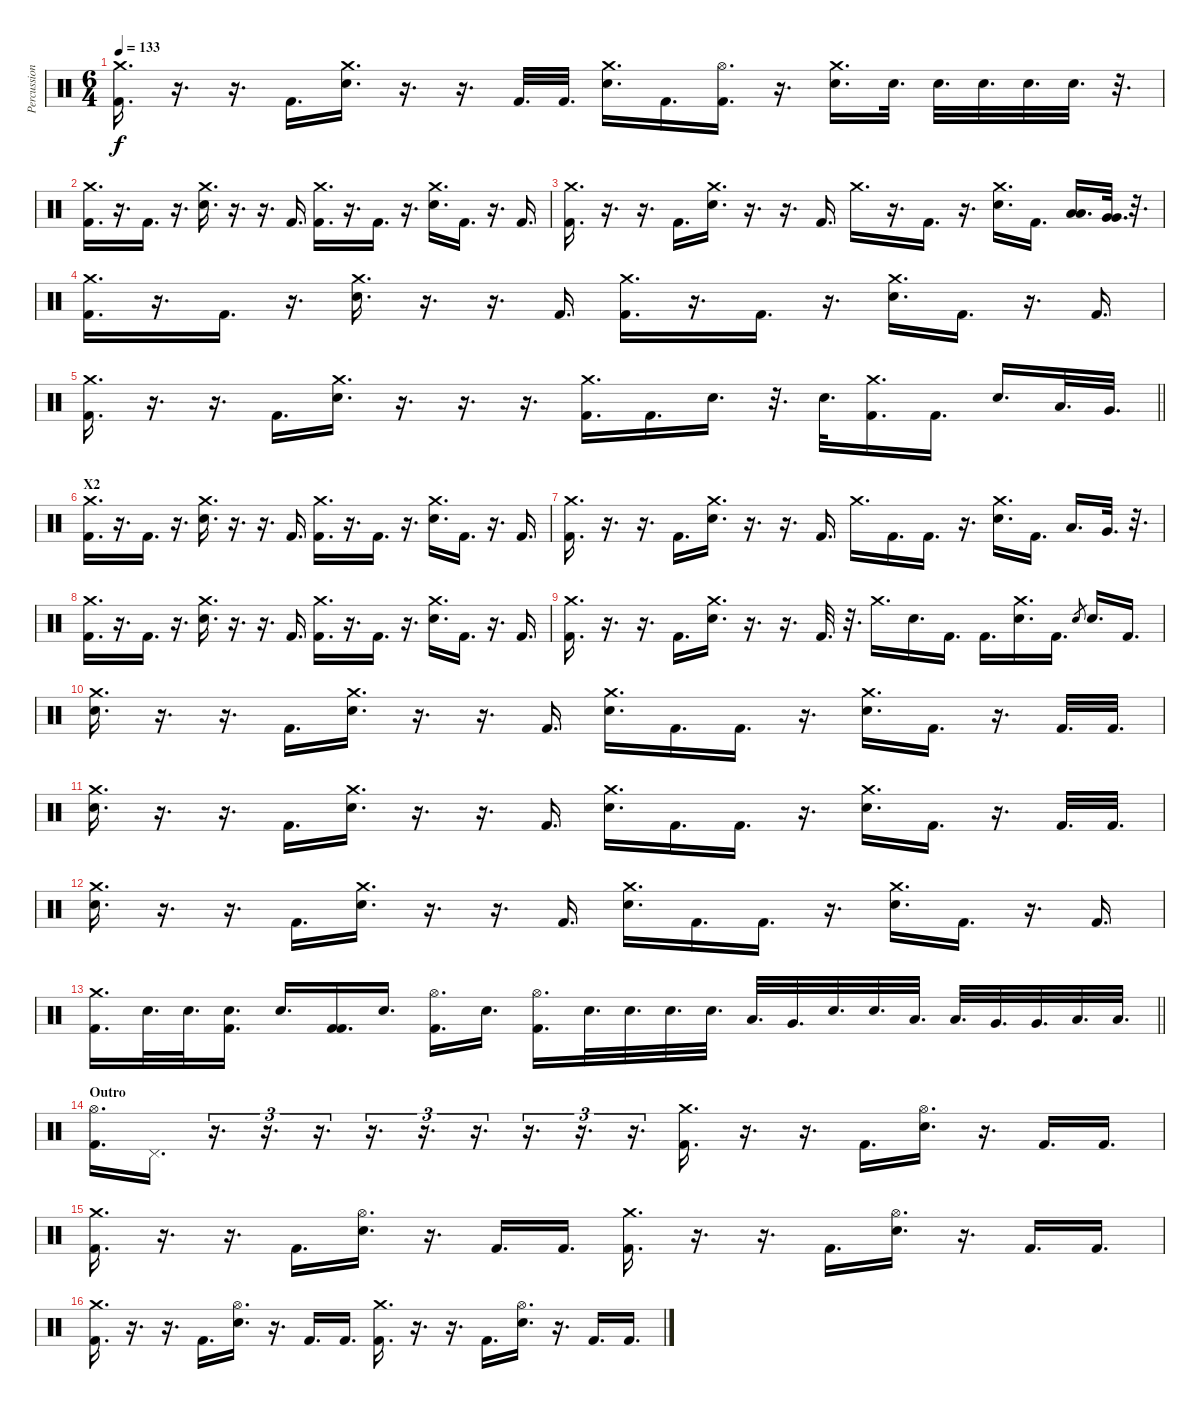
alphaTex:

\track ("Percussion" "Percussion") {instrument percussion}
\staff {score}
\articulation defaults
\ts (6 4)
\tempo 133
\clef neutral
\ks c
("Crash medium (hit)" "Kick (hit) 2").16{d dy f} r.16{d} r.16{d} "Kick (hit) 2".16{d} ("Crash medium (hit)" "Electric Snare (hit)").16{d} r.16{d} r.16{d} "Kick (hit) 2".32{d} "Kick (hit) 2".32{d} ("Crash medium (hit)" "Electric Snare (hit)").16{d} "Kick (hit) 2".16{d} ("Hi-Hat (open)" "Kick (hit) 2").16{d} r.16{d} ("Crash medium (hit)" "Electric Snare (hit)").16{d} "Electric Snare (hit)".32{d} "Electric Snare (hit)".32{d} "Electric Snare (hit)".32{d} "Electric Snare (hit)".32{d} "Electric Snare (hit)".32{d} r.32{d} |
("Crash medium (hit)" "Kick (hit) 2").16{d} r.16{d} "Kick (hit) 2".16{d} r.16{d} ("Crash medium (hit)" "Electric Snare (hit)").16{d} r.16{d} r.16{d} "Kick (hit) 2".16{d} ("Crash medium (hit)" "Kick (hit) 2").16{d} r.16{d} "Kick (hit) 2".16{d} r.16{d} ("Crash medium (hit)" "Electric Snare (hit)").16{d} "Kick (hit) 2".16{d} r.16{d} "Kick (hit) 2".16{d} |
("Crash medium (hit)" "Kick (hit) 2").16{d} r.16{d} r.16{d} "Kick (hit) 2".16{d} ("Crash medium (hit)" "Electric Snare (hit)").16{d} r.16{d} r.16{d} "Kick (hit) 2".16{d} "Crash medium (hit)".16{d} r.16{d} "Kick (hit) 2".16{d} r.16{d} ("Crash medium (hit)" "Electric Snare (hit)").16{d} "Kick (hit) 2".16{d} ("Low Tom (hit)" "Low Tom (hit)").16{d} ("Very Low Tom (hit)" "Very Low Tom (hit)").32{d} r.32{d} |
("Crash medium (hit)" "Kick (hit) 2").16{d} r.16{d} "Kick (hit) 2".16{d} r.16{d} ("Crash medium (hit)" "Electric Snare (hit)").16{d} r.16{d} r.16{d} "Kick (hit) 2".16{d} ("Crash medium (hit)" "Kick (hit) 2").16{d} r.16{d} "Kick (hit) 2".16{d} r.16{d} ("Crash medium (hit)" "Electric Snare (hit)").16{d} "Kick (hit) 2".16{d} r.16{d} "Kick (hit) 2".16{d} |
\barLineRight lightlight
("Crash medium (hit)" "Kick (hit) 2").16{d} r.16{d} r.16{d} "Kick (hit) 2".16{d} ("Crash medium (hit)" "Electric Snare (hit)").16{d} r.16{d} r.16{d} r.16{d} ("Crash medium (hit)" "Kick (hit) 2").16{d} "Kick (hit) 2".16{d} "Electric Snare (hit)".16{d} r.32{d} "Electric Snare (hit)".32{d} ("Crash medium (hit)" "Kick (hit) 2").16{d} "Kick (hit) 2".16{d} "Electric Snare (hit)".16{d} "Low Tom (hit)".32{d} "Very Low Tom (hit)".32{d} |
\section ("" "X2")
("Crash medium (hit)" "Kick (hit) 2").16{d} r.16{d} "Kick (hit) 2".16{d} r.16{d} ("Crash medium (hit)" "Electric Snare (hit)").16{d} r.16{d} r.16{d} "Kick (hit) 2".16{d} ("Crash medium (hit)" "Kick (hit) 2").16{d} r.16{d} "Kick (hit) 2".16{d} r.16{d} ("Crash medium (hit)" "Electric Snare (hit)").16{d} "Kick (hit) 2".16{d} r.16{d} "Kick (hit) 2".16{d} |
("Crash medium (hit)" "Kick (hit) 2").16{d} r.16{d} r.16{d} "Kick (hit) 2".16{d} ("Crash medium (hit)" "Electric Snare (hit)").16{d} r.16{d} r.16{d} "Kick (hit) 2".16{d} "Crash medium (hit)".16{d} "Kick (hit) 2".16{d} "Kick (hit) 2".16{d} r.16{d} ("Crash medium (hit)" "Electric Snare (hit)").16{d} "Kick (hit) 2".16{d} "Low Tom (hit)".16{d} "Very Low Tom (hit)".32{d} r.32{d} |
("Crash medium (hit)" "Kick (hit) 2").16{d} r.16{d} "Kick (hit) 2".16{d} r.16{d} ("Crash medium (hit)" "Electric Snare (hit)").16{d} r.16{d} r.16{d} "Kick (hit) 2".16{d} ("Crash medium (hit)" "Kick (hit) 2").16{d} r.16{d} "Kick (hit) 2".16{d} r.16{d} ("Crash medium (hit)" "Electric Snare (hit)").16{d} "Kick (hit) 2".16{d} r.16{d} "Kick (hit) 2".16{d} |
("Crash medium (hit)" "Kick (hit) 2").16{d} r.16{d} r.16{d} "Kick (hit) 2".16{d} ("Crash medium (hit)" "Electric Snare (hit)").16{d} r.16{d} r.16{d} "Kick (hit) 2".32{d} r.32{d} "Crash medium (hit)".16{d} "Electric Snare (hit)".16{d} "Kick (hit) 2".16{d} "Kick (hit) 2".16{d} ("Crash medium (hit)" "Electric Snare (hit)").16{d} "Kick (hit) 2".16{d} "Electric Snare (hit)".8{gr} "Electric Snare (hit)".16{d} "Kick (hit) 2".16{d} |
("Crash medium (hit)" "Electric Snare (hit)").16{d} r.16{d} r.16{d} "Kick (hit) 2".16{d} ("Crash medium (hit)" "Electric Snare (hit)").16{d} r.16{d} r.16{d} "Kick (hit) 2".16{d} ("Crash medium (hit)" "Electric Snare (hit)").16{d} "Kick (hit) 2".16{d} "Kick (hit) 2".16{d} r.16{d} ("Crash medium (hit)" "Electric Snare (hit)").16{d} "Kick (hit) 2".16{d} r.16{d} "Kick (hit) 2".32{d} "Kick (hit) 2".32{d} |
("Crash medium (hit)" "Electric Snare (hit)").16{d} r.16{d} r.16{d} "Kick (hit) 2".16{d} ("Crash medium (hit)" "Electric Snare (hit)").16{d} r.16{d} r.16{d} "Kick (hit) 2".16{d} ("Crash medium (hit)" "Electric Snare (hit)").16{d} "Kick (hit) 2".16{d} "Kick (hit) 2".16{d} r.16{d} ("Crash medium (hit)" "Electric Snare (hit)").16{d} "Kick (hit) 2".16{d} r.16{d} "Kick (hit) 2".32{d} "Kick (hit) 2".32{d} |
("Crash medium (hit)" "Electric Snare (hit)").16{d} r.16{d} r.16{d} "Kick (hit) 2".16{d} ("Crash medium (hit)" "Electric Snare (hit)").16{d} r.16{d} r.16{d} "Kick (hit) 2".16{d} ("Crash medium (hit)" "Electric Snare (hit)").16{d} "Kick (hit) 2".16{d} "Kick (hit) 2".16{d} r.16{d} ("Crash medium (hit)" "Electric Snare (hit)").16{d} "Kick (hit) 2".16{d} r.16{d} "Kick (hit) 2".16{d} |
\barLineRight lightlight
("Crash medium (hit)" "Kick (hit) 2").16{d} "Electric Snare (hit)".32{d} "Electric Snare (hit)".32{d} ("Kick (hit) 2" "Electric Snare (hit)").16{d} "Electric Snare (hit)".16{d} ("Kick (hit) 2" "Kick (hit) 2").16{d} "Electric Snare (hit)".16{d} ("Kick (hit) 2" "Hi-Hat (open)").16{d} "Electric Snare (hit)".16{d} ("Kick (hit) 2" "Hi-Hat (open)").16{d} "Electric Snare (hit)".32{d} "Electric Snare (hit)".32{d} "Electric Snare (hit)".32{d} "Electric Snare (hit)".32{d} "Low Tom (hit)".32{d} "Very Low Tom (hit)".32{d} "Electric Snare (hit)".32{d} "Electric Snare (hit)".32{d} "Low Tom (hit)".32{d} "Low Tom (hit)".32{d} "Very Low Tom (hit)".32{d} "Very Low Tom (hit)".32{d} "Low Floor Tom (hit)".32{d} "Low Floor Tom (hit)".32{d} |
\section ("" "Outro")
("Hi-Hat (open)" "Kick (hit) 2").16{d} "Pedal Hi-Hat (hit)".16{d} r.16{d tu (3 2)} r.16{d tu (3 2)} r.16{d tu (3 2)} r.16{d tu (3 2)} r.16{d tu (3 2)} r.16{d tu (3 2)} r.16{d tu (3 2)} r.16{d tu (3 2)} r.16{d tu (3 2)} ("Crash medium (hit)" "Kick (hit) 2").16{d} r.16{d} r.16{d} "Kick (hit) 2".16{d} ("Hi-Hat (open)" "Electric Snare (hit)").16{d} r.16{d} "Kick (hit) 2".16{d} "Kick (hit) 2".16{d} |
("Crash medium (hit)" "Kick (hit) 2").16{d} r.16{d} r.16{d} "Kick (hit) 2".16{d} ("Hi-Hat (open)" "Electric Snare (hit)").16{d} r.16{d} "Kick (hit) 2".16{d} "Kick (hit) 2".16{d} ("Crash medium (hit)" "Kick (hit) 2").16{d} r.16{d} r.16{d} "Kick (hit) 2".16{d} ("Hi-Hat (open)" "Electric Snare (hit)").16{d} r.16{d} "Kick (hit) 2".16{d} "Kick (hit) 2".16{d} |
("Crash medium (hit)" "Kick (hit) 2").16{d} r.16{d} r.16{d} "Kick (hit) 2".16{d} ("Hi-Hat (open)" "Electric Snare (hit)").16{d} r.16{d} "Kick (hit) 2".16{d} "Kick (hit) 2".16{d} ("Crash medium (hit)" "Kick (hit) 2").16{d} r.16{d} r.16{d} "Kick (hit) 2".16{d} ("Hi-Hat (open)" "Electric Snare (hit)").16{d} r.16{d} "Kick (hit) 2".16{d} "Kick (hit) 2".16{d}
